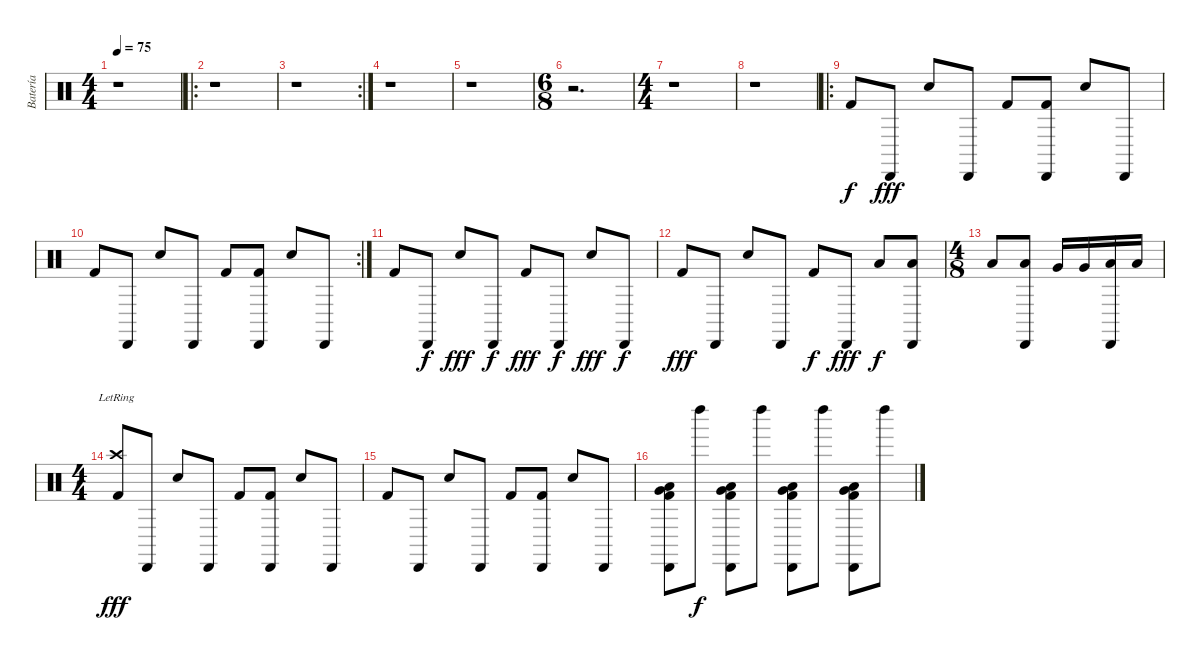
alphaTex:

\track ("Batería" "Batería") {instrument percussion}
\staff {score}
\articulation defaults
\ts (4 4)
\tempo 75
\clef neutral
\ks c
r.1{dy f} |
\ro
r.1 |
\rc 2
r.1 |
r.1 |
r.1 |
\ts (6 8)
r.2{d} |
\ts (4 4)
r.1 |
r.1 |
\ro "Kick (hit) 2".8 "Cabasa (hit)".8{dy fff} "Electric Snare (hit)".8 "Cabasa (hit)".8 "Kick (hit) 2".8
("Cabasa (hit)" "Kick (hit) 2").8 "Electric Snare (hit)".8 "Cabasa (hit)".8 |
\rc 2 "Kick (hit) 2".8 "Cabasa (hit)".8 "Electric Snare (hit)".8 "Cabasa (hit)".8 "Kick (hit) 2".8
("Cabasa (hit)" "Kick (hit) 2").8 "Electric Snare (hit)".8 "Cabasa (hit)".8 |
"Kick (hit) 2".8 "Cabasa (hit)".8{dy f} "Electric Snare (hit)".8{dy fff} "Cabasa (hit)".8{dy f} "Kick (hit) 2".8{dy fff} "Cabasa (hit)".8{dy f} "Electric Snare (hit)".8{dy fff} "Cabasa (hit)".8{dy f} |
"Kick (hit) 2".8{dy fff} "Cabasa (hit)".8 "Electric Snare (hit)".8 "Cabasa (hit)".8 "Kick (hit) 2".8{bd 120 dy f} "Cabasa (hit)".8{dy fff} "Low Tom (hit)".8{bd 60 dy f} ("Cabasa (hit)" "Low Tom (hit)").8{bd 60} |
\ts (4 8)
"Low Tom (hit)".8 ("Cabasa (hit)" "Low Tom (hit)").8 "Very Low Tom (hit)".16 "Very Low Tom (hit)".16 ("Cabasa (hit)" "Low Floor Tom (hit)").16 "Low Floor Tom (hit)".16 |
\ts (4 4)
("Crash high (hit)"{lr} "Kick (hit) 2").8{dy fff} "Cabasa (hit)".8 "Electric Snare (hit)".8 "Cabasa (hit)".8 "Kick (hit) 2".8 ("Cabasa (hit)" "Kick (hit) 2").8 "Electric Snare (hit)".8 "Cabasa (hit)".8 |
"Kick (hit) 2".8 "Cabasa (hit)".8 "Electric Snare (hit)".8 "Cabasa (hit)".8 "Kick (hit) 2".8 ("Cabasa (hit)" "Kick (hit) 2").8 "Electric Snare (hit)".8 "Cabasa (hit)".8 |
("Cabasa (hit)" "Very Low Tom (hit)" "Low Floor Tom (hit)" "Kick (hit) 2").8{volume 14} "Left Maraca (hit)".8{dy f} ("Cabasa (hit)" "Very Low Tom (hit)" "Low Floor Tom (hit)" "Kick (hit) 2").8 "Left Maraca (hit)".8 ("Cabasa (hit)" "Very Low Tom (hit)" "Low Floor Tom (hit)" "Kick (hit) 2").8 "Left Maraca (hit)".8 ("Cabasa (hit)" "Very Low Tom (hit)" "Low Floor Tom (hit)" "Kick (hit) 2").8 "Left Maraca (hit)".8
